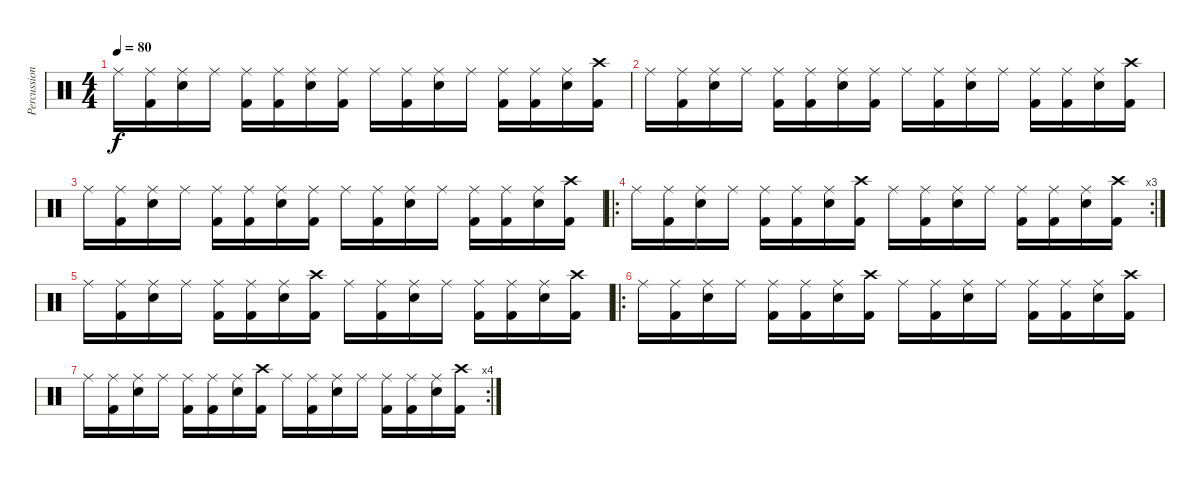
\track ("Percussion" "Percussion") {instrument percussion}
\staff {score}
\articulation defaults
\ts (4 4)
\tempo 80
\clef neutral
\ks c "Ride (middle)".16{dy f}
("Ride (middle)" "Kick (hit) 2").16 ("Ride (middle)" "Snare (hit) 2").16 "Ride (middle)".16 ("Ride (middle)" "Kick (hit) 2").16 ("Ride (middle)" "Kick (hit) 2").16 ("Ride (middle)" "Snare (hit) 2").16 ("Ride (middle)" "Kick (hit) 2").16 "Ride (middle)".16 ("Ride (middle)" "Kick (hit) 2").16 ("Ride (middle)" "Snare (hit) 2").16 "Ride (middle)".16 ("Ride (middle)" "Kick (hit) 2").16 ("Ride (middle)" "Kick (hit) 2").16 ("Ride (middle)" "Snare (hit) 2").16 ("Crash high (hit)" "Kick (hit) 2").16 |
"Ride (middle)".16 ("Ride (middle)" "Kick (hit) 2").16 ("Ride (middle)" "Snare (hit) 2").16 "Ride (middle)".16 ("Ride (middle)" "Kick (hit) 2").16 ("Ride (middle)" "Kick (hit) 2").16 ("Ride (middle)" "Snare (hit) 2").16 ("Ride (middle)" "Kick (hit) 2").16 "Ride (middle)".16 ("Ride (middle)" "Kick (hit) 2").16 ("Ride (middle)" "Snare (hit) 2").16 "Ride (middle)".16 ("Ride (middle)" "Kick (hit) 2").16 ("Ride (middle)" "Kick (hit) 2").16 ("Ride (middle)" "Snare (hit) 2").16 ("Crash high (hit)" "Kick (hit) 2").16 |
"Ride (middle)".16 ("Ride (middle)" "Kick (hit) 2").16 ("Ride (middle)" "Snare (hit) 2").16 "Ride (middle)".16 ("Ride (middle)" "Kick (hit) 2").16 ("Ride (middle)" "Kick (hit) 2").16 ("Ride (middle)" "Snare (hit) 2").16 ("Ride (middle)" "Kick (hit) 2").16 "Ride (middle)".16 ("Ride (middle)" "Kick (hit) 2").16 ("Ride (middle)" "Snare (hit) 2").16 "Ride (middle)".16 ("Ride (middle)" "Kick (hit) 2").16 ("Ride (middle)" "Kick (hit) 2").16 ("Ride (middle)" "Snare (hit) 2").16 ("Crash high (hit)" "Kick (hit) 2").16 |
\ro
\rc 3 "Ride (middle)".16
("Ride (middle)" "Kick (hit) 2").16 ("Ride (middle)" "Snare (hit) 2").16 "Ride (middle)".16 ("Ride (middle)" "Kick (hit) 2").16 ("Ride (middle)" "Kick (hit) 2").16 ("Ride (middle)" "Snare (hit) 2").16 ("Crash high (hit)" "Kick (hit) 2").16 "Ride (middle)".16 ("Ride (middle)" "Kick (hit) 2").16 ("Ride (middle)" "Snare (hit) 2").16 "Ride (middle)".16 ("Ride (middle)" "Kick (hit) 2").16 ("Ride (middle)" "Kick (hit) 2").16 ("Ride (middle)" "Snare (hit) 2").16 ("Crash high (hit)" "Kick (hit) 2").16 |
"Ride (middle)".16 ("Ride (middle)" "Kick (hit) 2").16 ("Ride (middle)" "Snare (hit) 2").16 "Ride (middle)".16 ("Ride (middle)" "Kick (hit) 2").16 ("Ride (middle)" "Kick (hit) 2").16 ("Ride (middle)" "Snare (hit) 2").16 ("Crash high (hit)" "Kick (hit) 2").16 "Ride (middle)".16 ("Ride (middle)" "Kick (hit) 2").16 ("Ride (middle)" "Snare (hit) 2").16 "Ride (middle)".16 ("Ride (middle)" "Kick (hit) 2").16 ("Ride (middle)" "Kick (hit) 2").16 ("Ride (middle)" "Snare (hit) 2").16 ("Crash high (hit)" "Kick (hit) 2").16 |
\ro "Ride (middle)".16
("Ride (middle)" "Kick (hit) 2").16 ("Ride (middle)" "Snare (hit) 2").16 "Ride (middle)".16 ("Ride (middle)" "Kick (hit) 2").16 ("Ride (middle)" "Kick (hit) 2").16 ("Ride (middle)" "Snare (hit) 2").16 ("Crash high (hit)" "Kick (hit) 2").16 "Ride (middle)".16 ("Ride (middle)" "Kick (hit) 2").16 ("Ride (middle)" "Snare (hit) 2").16 "Ride (middle)".16 ("Ride (middle)" "Kick (hit) 2").16 ("Ride (middle)" "Kick (hit) 2").16 ("Ride (middle)" "Snare (hit) 2").16 ("Crash high (hit)" "Kick (hit) 2").16 |
\rc 4 "Ride (middle)".16
("Ride (middle)" "Kick (hit) 2").16 ("Ride (middle)" "Snare (hit) 2").16 "Ride (middle)".16 ("Ride (middle)" "Kick (hit) 2").16 ("Ride (middle)" "Kick (hit) 2").16 ("Ride (middle)" "Snare (hit) 2").16 ("Crash high (hit)" "Kick (hit) 2").16 "Ride (middle)".16 ("Ride (middle)" "Kick (hit) 2").16 ("Ride (middle)" "Snare (hit) 2").16 "Ride (middle)".16 ("Ride (middle)" "Kick (hit) 2").16 ("Ride (middle)" "Kick (hit) 2").16 ("Ride (middle)" "Snare (hit) 2").16 ("Crash high (hit)" "Kick (hit) 2").16
